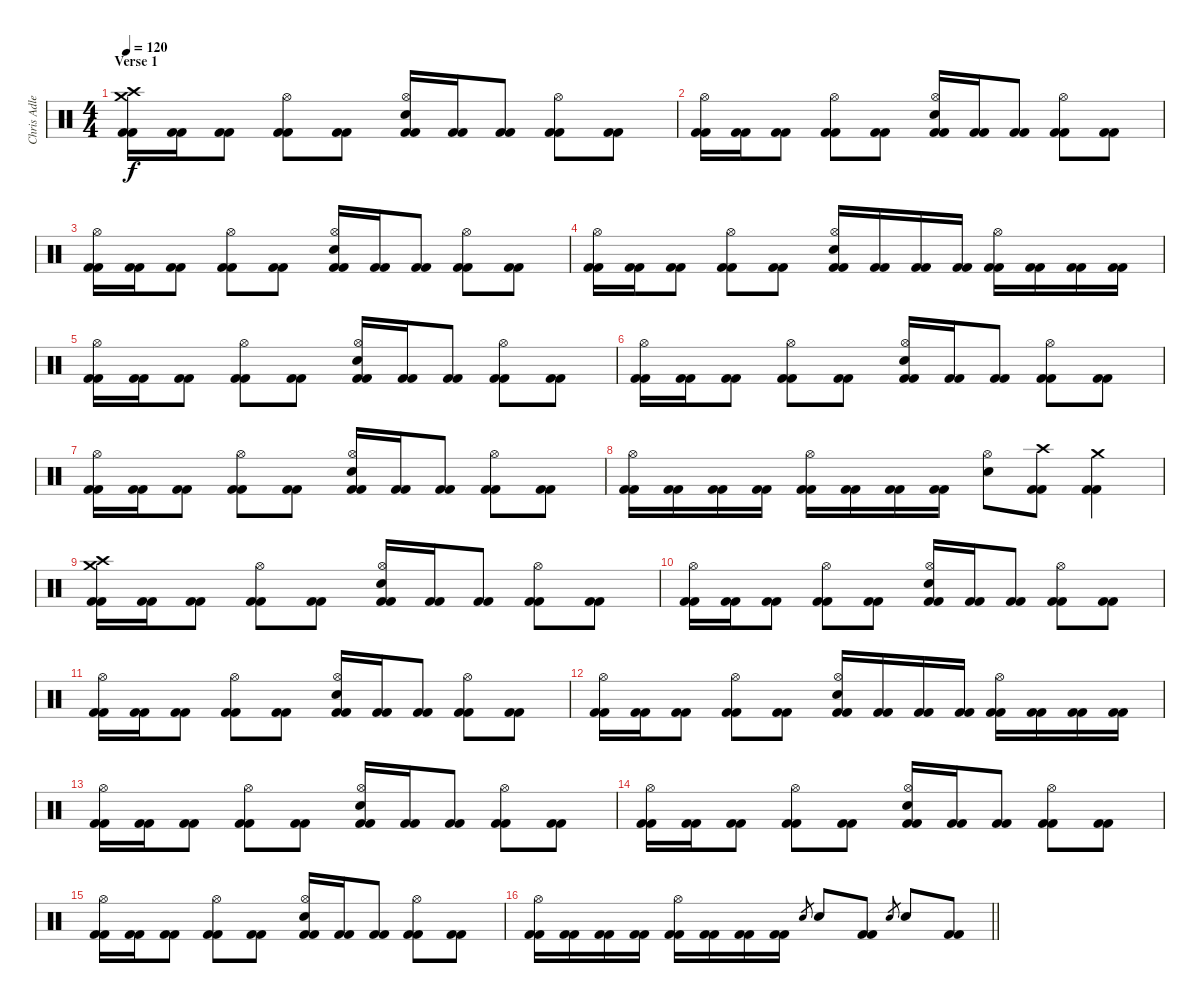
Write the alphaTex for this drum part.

\track ("Chris Adler" "Chris Adle") {instrument percussion}
\staff {score}
\articulation defaults
\ts (4 4)
\section ("" "Verse 1")
\tempo 120
\clef neutral
\ks c
("Crash medium (hit)" "Crash high (hit)" "Kick (hit) 2" "Kick (hit) 2").16{dy f} ("Kick (hit) 2" "Kick (hit) 2").16 ("Kick (hit) 2" "Kick (hit) 2").8 ("Hi-Hat (open)" "Kick (hit) 2" "Kick (hit) 2").8 ("Kick (hit) 2" "Kick (hit) 2").8 ("Hi-Hat (open)" "Electric Snare (hit)" "Kick (hit) 2" "Kick (hit) 2").16 ("Kick (hit) 2" "Kick (hit) 2").16 ("Kick (hit) 2" "Kick (hit) 2").8 ("Hi-Hat (open)" "Kick (hit) 2" "Kick (hit) 2").8 ("Kick (hit) 2" "Kick (hit) 2").8 |
("Hi-Hat (open)" "Kick (hit) 2" "Kick (hit) 2").16 ("Kick (hit) 2" "Kick (hit) 2").16 ("Kick (hit) 2" "Kick (hit) 2").8 ("Hi-Hat (open)" "Kick (hit) 2" "Kick (hit) 2").8 ("Kick (hit) 2" "Kick (hit) 2").8 ("Hi-Hat (open)" "Electric Snare (hit)" "Kick (hit) 2" "Kick (hit) 2").16 ("Kick (hit) 2" "Kick (hit) 2").16 ("Kick (hit) 2" "Kick (hit) 2").8 ("Hi-Hat (open)" "Kick (hit) 2" "Kick (hit) 2").8 ("Kick (hit) 2" "Kick (hit) 2").8 |
("Hi-Hat (open)" "Kick (hit) 2" "Kick (hit) 2").16 ("Kick (hit) 2" "Kick (hit) 2").16 ("Kick (hit) 2" "Kick (hit) 2").8 ("Hi-Hat (open)" "Kick (hit) 2" "Kick (hit) 2").8 ("Kick (hit) 2" "Kick (hit) 2").8 ("Hi-Hat (open)" "Electric Snare (hit)" "Kick (hit) 2" "Kick (hit) 2").16 ("Kick (hit) 2" "Kick (hit) 2").16 ("Kick (hit) 2" "Kick (hit) 2").8 ("Hi-Hat (open)" "Kick (hit) 2" "Kick (hit) 2").8 ("Kick (hit) 2" "Kick (hit) 2").8 |
("Hi-Hat (open)" "Kick (hit) 2" "Kick (hit) 2").16 ("Kick (hit) 2" "Kick (hit) 2").16 ("Kick (hit) 2" "Kick (hit) 2").8 ("Hi-Hat (open)" "Kick (hit) 2" "Kick (hit) 2").8 ("Kick (hit) 2" "Kick (hit) 2").8 ("Hi-Hat (open)" "Electric Snare (hit)" "Kick (hit) 2" "Kick (hit) 2").16 ("Kick (hit) 2" "Kick (hit) 2").16 ("Kick (hit) 2" "Kick (hit) 2").16 ("Kick (hit) 2" "Kick (hit) 2").16 ("Hi-Hat (open)" "Kick (hit) 2" "Kick (hit) 2").16 ("Kick (hit) 2" "Kick (hit) 2").16 ("Kick (hit) 2" "Kick (hit) 2").16 ("Kick (hit) 2" "Kick (hit) 2").16 |
("Hi-Hat (open)" "Kick (hit) 2" "Kick (hit) 2").16 ("Kick (hit) 2" "Kick (hit) 2").16 ("Kick (hit) 2" "Kick (hit) 2").8 ("Hi-Hat (open)" "Kick (hit) 2" "Kick (hit) 2").8 ("Kick (hit) 2" "Kick (hit) 2").8 ("Hi-Hat (open)" "Electric Snare (hit)" "Kick (hit) 2" "Kick (hit) 2").16 ("Kick (hit) 2" "Kick (hit) 2").16 ("Kick (hit) 2" "Kick (hit) 2").8 ("Hi-Hat (open)" "Kick (hit) 2" "Kick (hit) 2").8 ("Kick (hit) 2" "Kick (hit) 2").8 |
("Hi-Hat (open)" "Kick (hit) 2" "Kick (hit) 2").16 ("Kick (hit) 2" "Kick (hit) 2").16 ("Kick (hit) 2" "Kick (hit) 2").8 ("Hi-Hat (open)" "Kick (hit) 2" "Kick (hit) 2").8 ("Kick (hit) 2" "Kick (hit) 2").8 ("Hi-Hat (open)" "Electric Snare (hit)" "Kick (hit) 2" "Kick (hit) 2").16 ("Kick (hit) 2" "Kick (hit) 2").16 ("Kick (hit) 2" "Kick (hit) 2").8 ("Hi-Hat (open)" "Kick (hit) 2" "Kick (hit) 2").8 ("Kick (hit) 2" "Kick (hit) 2").8 |
("Hi-Hat (open)" "Kick (hit) 2" "Kick (hit) 2").16 ("Kick (hit) 2" "Kick (hit) 2").16 ("Kick (hit) 2" "Kick (hit) 2").8 ("Hi-Hat (open)" "Kick (hit) 2" "Kick (hit) 2").8 ("Kick (hit) 2" "Kick (hit) 2").8 ("Hi-Hat (open)" "Electric Snare (hit)" "Kick (hit) 2" "Kick (hit) 2").16 ("Kick (hit) 2" "Kick (hit) 2").16 ("Kick (hit) 2" "Kick (hit) 2").8 ("Hi-Hat (open)" "Kick (hit) 2" "Kick (hit) 2").8 ("Kick (hit) 2" "Kick (hit) 2").8 |
("Hi-Hat (open)" "Kick (hit) 2" "Kick (hit) 2").16 ("Kick (hit) 2" "Kick (hit) 2").16 ("Kick (hit) 2" "Kick (hit) 2").16 ("Kick (hit) 2" "Kick (hit) 2").16 ("Hi-Hat (open)" "Kick (hit) 2" "Kick (hit) 2").16 ("Kick (hit) 2" "Kick (hit) 2").16 ("Kick (hit) 2" "Kick (hit) 2").16 ("Kick (hit) 2" "Kick (hit) 2").16 ("Hi-Hat (open)" "Electric Snare (hit)").8 ("Crash high (hit)" "Kick (hit) 2" "Kick (hit) 2").8 ("Crash medium (hit)" "Kick (hit) 2" "Kick (hit) 2").4 |
("Crash medium (hit)" "Crash high (hit)" "Kick (hit) 2" "Kick (hit) 2").16 ("Kick (hit) 2" "Kick (hit) 2").16 ("Kick (hit) 2" "Kick (hit) 2").8 ("Hi-Hat (open)" "Kick (hit) 2" "Kick (hit) 2").8 ("Kick (hit) 2" "Kick (hit) 2").8 ("Hi-Hat (open)" "Electric Snare (hit)" "Kick (hit) 2" "Kick (hit) 2").16 ("Kick (hit) 2" "Kick (hit) 2").16 ("Kick (hit) 2" "Kick (hit) 2").8 ("Hi-Hat (open)" "Kick (hit) 2" "Kick (hit) 2").8 ("Kick (hit) 2" "Kick (hit) 2").8 |
("Hi-Hat (open)" "Kick (hit) 2" "Kick (hit) 2").16 ("Kick (hit) 2" "Kick (hit) 2").16 ("Kick (hit) 2" "Kick (hit) 2").8 ("Hi-Hat (open)" "Kick (hit) 2" "Kick (hit) 2").8 ("Kick (hit) 2" "Kick (hit) 2").8 ("Hi-Hat (open)" "Electric Snare (hit)" "Kick (hit) 2" "Kick (hit) 2").16 ("Kick (hit) 2" "Kick (hit) 2").16 ("Kick (hit) 2" "Kick (hit) 2").8 ("Hi-Hat (open)" "Kick (hit) 2" "Kick (hit) 2").8 ("Kick (hit) 2" "Kick (hit) 2").8 |
("Hi-Hat (open)" "Kick (hit) 2" "Kick (hit) 2").16 ("Kick (hit) 2" "Kick (hit) 2").16 ("Kick (hit) 2" "Kick (hit) 2").8 ("Hi-Hat (open)" "Kick (hit) 2" "Kick (hit) 2").8 ("Kick (hit) 2" "Kick (hit) 2").8 ("Hi-Hat (open)" "Electric Snare (hit)" "Kick (hit) 2" "Kick (hit) 2").16 ("Kick (hit) 2" "Kick (hit) 2").16 ("Kick (hit) 2" "Kick (hit) 2").8 ("Hi-Hat (open)" "Kick (hit) 2" "Kick (hit) 2").8 ("Kick (hit) 2" "Kick (hit) 2").8 |
("Hi-Hat (open)" "Kick (hit) 2" "Kick (hit) 2").16 ("Kick (hit) 2" "Kick (hit) 2").16 ("Kick (hit) 2" "Kick (hit) 2").8 ("Hi-Hat (open)" "Kick (hit) 2" "Kick (hit) 2").8 ("Kick (hit) 2" "Kick (hit) 2").8 ("Hi-Hat (open)" "Electric Snare (hit)" "Kick (hit) 2" "Kick (hit) 2").16 ("Kick (hit) 2" "Kick (hit) 2").16 ("Kick (hit) 2" "Kick (hit) 2").16 ("Kick (hit) 2" "Kick (hit) 2").16 ("Hi-Hat (open)" "Kick (hit) 2" "Kick (hit) 2").16 ("Kick (hit) 2" "Kick (hit) 2").16 ("Kick (hit) 2" "Kick (hit) 2").16 ("Kick (hit) 2" "Kick (hit) 2").16 |
("Hi-Hat (open)" "Kick (hit) 2" "Kick (hit) 2").16 ("Kick (hit) 2" "Kick (hit) 2").16 ("Kick (hit) 2" "Kick (hit) 2").8 ("Hi-Hat (open)" "Kick (hit) 2" "Kick (hit) 2").8 ("Kick (hit) 2" "Kick (hit) 2").8 ("Hi-Hat (open)" "Electric Snare (hit)" "Kick (hit) 2" "Kick (hit) 2").16 ("Kick (hit) 2" "Kick (hit) 2").16 ("Kick (hit) 2" "Kick (hit) 2").8 ("Hi-Hat (open)" "Kick (hit) 2" "Kick (hit) 2").8 ("Kick (hit) 2" "Kick (hit) 2").8 |
("Hi-Hat (open)" "Kick (hit) 2" "Kick (hit) 2").16 ("Kick (hit) 2" "Kick (hit) 2").16 ("Kick (hit) 2" "Kick (hit) 2").8 ("Hi-Hat (open)" "Kick (hit) 2" "Kick (hit) 2").8 ("Kick (hit) 2" "Kick (hit) 2").8 ("Hi-Hat (open)" "Electric Snare (hit)" "Kick (hit) 2" "Kick (hit) 2").16 ("Kick (hit) 2" "Kick (hit) 2").16 ("Kick (hit) 2" "Kick (hit) 2").8 ("Hi-Hat (open)" "Kick (hit) 2" "Kick (hit) 2").8 ("Kick (hit) 2" "Kick (hit) 2").8 |
("Hi-Hat (open)" "Kick (hit) 2" "Kick (hit) 2").16 ("Kick (hit) 2" "Kick (hit) 2").16 ("Kick (hit) 2" "Kick (hit) 2").8 ("Hi-Hat (open)" "Kick (hit) 2" "Kick (hit) 2").8 ("Kick (hit) 2" "Kick (hit) 2").8 ("Hi-Hat (open)" "Electric Snare (hit)" "Kick (hit) 2" "Kick (hit) 2").16 ("Kick (hit) 2" "Kick (hit) 2").16 ("Kick (hit) 2" "Kick (hit) 2").8 ("Hi-Hat (open)" "Kick (hit) 2" "Kick (hit) 2").8 ("Kick (hit) 2" "Kick (hit) 2").8 |
\barLineRight lightlight
("Hi-Hat (open)" "Kick (hit) 2" "Kick (hit) 2").16 ("Kick (hit) 2" "Kick (hit) 2").16 ("Kick (hit) 2" "Kick (hit) 2").16 ("Kick (hit) 2" "Kick (hit) 2").16 ("Hi-Hat (open)" "Kick (hit) 2" "Kick (hit) 2").16 ("Kick (hit) 2" "Kick (hit) 2").16 ("Kick (hit) 2" "Kick (hit) 2").16 ("Kick (hit) 2" "Kick (hit) 2").16 "Electric Snare (hit)".8{gr} "Electric Snare (hit)".8 ("Kick (hit) 2" "Kick (hit) 2").8 "Electric Snare (hit)".8{gr} "Electric Snare (hit)".8 ("Kick (hit) 2" "Kick (hit) 2").8
